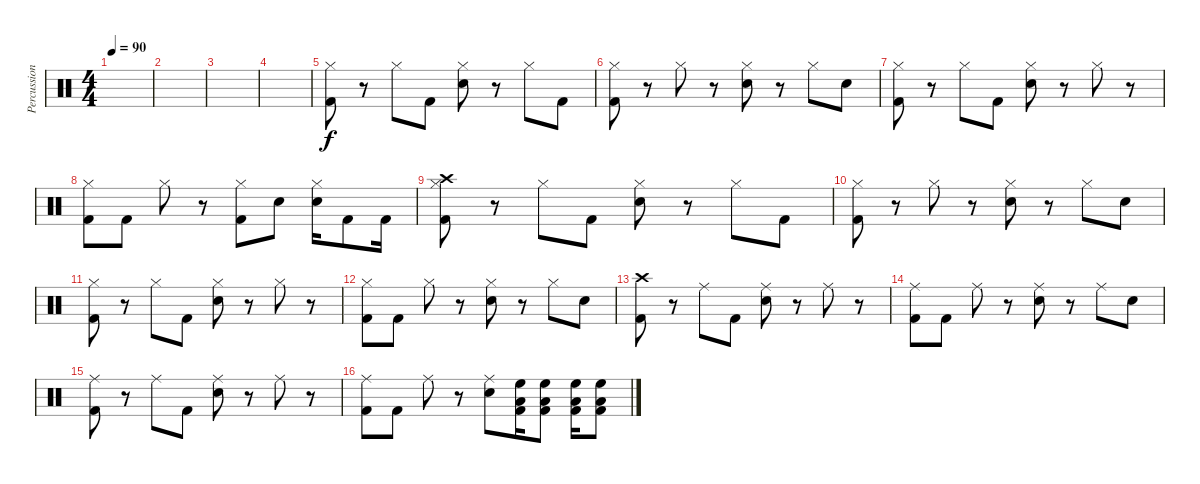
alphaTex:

\track ("Percussion" "Percussion") {instrument percussion}
\staff {score}
\articulation defaults
\ts (4 4)
\tempo 90
\clef neutral
\ks c
|
|
|
|
("Kick (hit) 2" "Hi-Hat (closed)").8 r.8 "Hi-Hat (closed)".8 "Kick (hit) 2".8 ("Snare (hit) 2" "Hi-Hat (closed)").8 r.8 "Hi-Hat (closed)".8 "Kick (hit) 2".8 |
("Kick (hit) 2" "Hi-Hat (closed)").8 r.8 "Hi-Hat (closed)".8 r.8 ("Snare (hit) 2" "Hi-Hat (closed)").8 r.8 "Hi-Hat (closed)".8 "Snare (hit) 2".8 |
("Kick (hit) 2" "Hi-Hat (closed)").8 r.8 "Hi-Hat (closed)".8 "Kick (hit) 2".8 ("Snare (hit) 2" "Hi-Hat (closed)").8 r.8 "Hi-Hat (closed)".8 r.8 |
("Kick (hit) 2" "Hi-Hat (closed)").8 "Kick (hit) 2".8 "Hi-Hat (closed)".8 r.8 ("Kick (hit) 2" "Hi-Hat (closed)").8 "Snare (hit) 2".8 ("Snare (hit) 2" "Hi-Hat (closed)").16 "Kick (hit) 2".8 "Kick (hit) 2".16 |
("Kick (hit) 2" "Hi-Hat (closed)" "Crash high (hit)").8 r.8 "Hi-Hat (closed)".8 "Kick (hit) 2".8 ("Snare (hit) 2" "Hi-Hat (closed)").8 r.8 "Hi-Hat (closed)".8 "Kick (hit) 2".8 |
("Kick (hit) 2" "Hi-Hat (closed)").8 r.8 "Hi-Hat (closed)".8 r.8 ("Snare (hit) 2" "Hi-Hat (closed)").8 r.8 "Hi-Hat (closed)".8 "Snare (hit) 2".8 |
("Kick (hit) 2" "Hi-Hat (closed)").8 r.8 "Hi-Hat (closed)".8 "Kick (hit) 2".8 ("Snare (hit) 2" "Hi-Hat (closed)").8 r.8 "Hi-Hat (closed)".8 r.8 |
("Kick (hit) 2" "Hi-Hat (closed)").8 "Kick (hit) 2".8 "Hi-Hat (closed)".8 r.8 ("Snare (hit) 2" "Hi-Hat (closed)").8 r.8 "Hi-Hat (closed)".8 "Snare (hit) 2".8 |
("Kick (hit) 2" "Crash high (hit)").8 r.8 "Ride (middle)".8 "Kick (hit) 2".8 ("Snare (hit) 2" "Ride (middle)").8 r.8 "Ride (middle)".8 r.8 |
("Kick (hit) 2" "Ride (middle)").8 "Kick (hit) 2".8 "Ride (middle)".8 r.8 ("Snare (hit) 2" "Ride (middle)").8 r.8 "Ride (middle)".8 "Snare (hit) 2".8 |
("Kick (hit) 2" "Ride (middle)").8 r.8 "Ride (middle)".8 "Kick (hit) 2".8 ("Snare (hit) 2" "Ride (middle)").8 r.8 "Ride (middle)".8 r.8 |
("Kick (hit) 2" "Ride (middle)").8 "Kick (hit) 2".8 "Ride (middle)".8 r.8 ("Snare (hit) 2" "Ride (middle)").8 ("Kick (hit) 2" "Low Tom (hit)" "High Floor Tom (hit)").16 ("Kick (hit) 2" "Low Tom (hit)" "High Floor Tom (hit)").8 ("Low Tom (hit)" "High Floor Tom (hit)" "Kick (hit) 2").16 ("Low Tom (hit)" "High Floor Tom (hit)" "Kick (hit) 2").8
